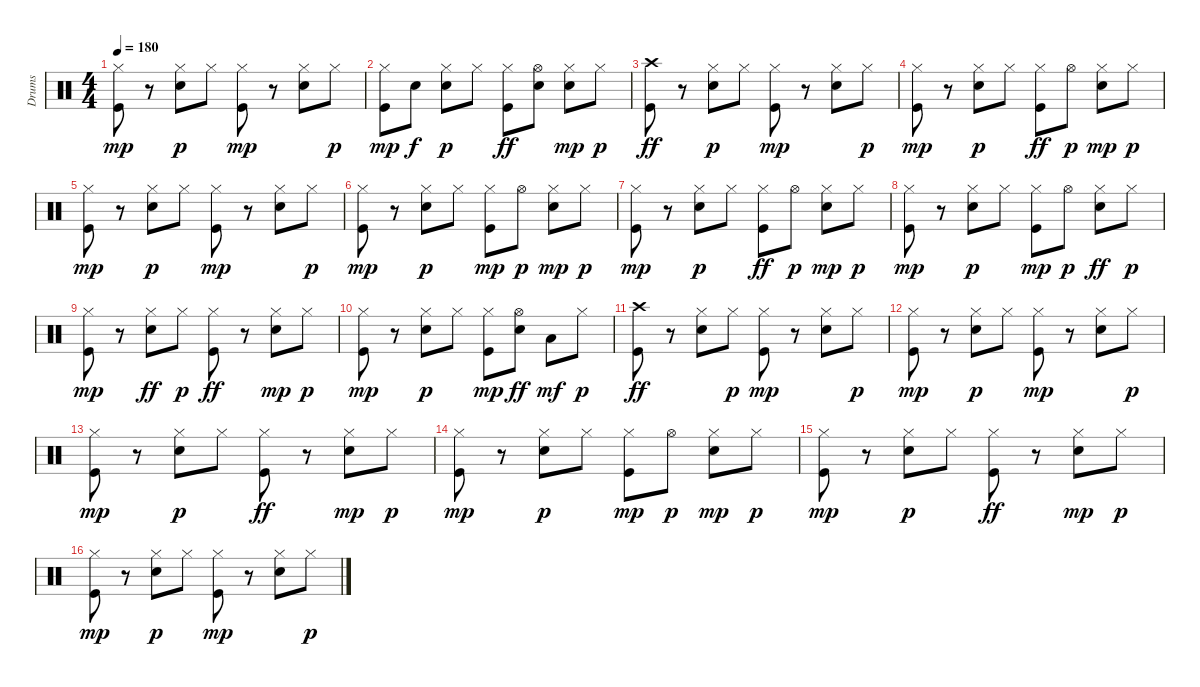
\track ("Drums" "Drums") {instrument percussion}
\staff {score}
\articulation defaults
\ts (4 4)
\tempo 180
\clef neutral
\ks c
("Kick (hit)" "Hi-Hat (closed)").8{dy mp} r.8 ("Snare (hit) 2" "Hi-Hat (closed)").8{dy p} "Hi-Hat (closed)".8 ("Kick (hit)" "Hi-Hat (closed)").8{dy mp} r.8 ("Snare (hit) 2" "Hi-Hat (closed)").8 "Hi-Hat (closed)".8{dy p} |
("Kick (hit)" "Hi-Hat (closed)").8{dy mp} "Snare (hit) 2".8{dy f} ("Snare (hit) 2" "Hi-Hat (closed)").8{dy p} "Hi-Hat (closed)".8 ("Hi-Hat (closed)" "Kick (hit)").8{dy ff} ("Hi-Hat (open)" "Snare (hit) 2").8 ("Snare (hit) 2" "Hi-Hat (closed)").8{dy mp} "Hi-Hat (closed)".8{dy p} |
("Crash high (hit)" "Kick (hit)").8{dy ff} r.8 ("Snare (hit) 2" "Hi-Hat (closed)").8{dy p} "Hi-Hat (closed)".8 ("Kick (hit)" "Hi-Hat (closed)").8{dy mp} r.8 ("Snare (hit) 2" "Hi-Hat (closed)").8 "Hi-Hat (closed)".8{dy p} |
("Kick (hit)" "Hi-Hat (closed)").8{dy mp} r.8 ("Snare (hit) 2" "Hi-Hat (closed)").8{dy p} "Hi-Hat (closed)".8 ("Hi-Hat (closed)" "Kick (hit)").8{dy ff} "Hi-Hat (open)".8{dy p} ("Snare (hit) 2" "Hi-Hat (closed)").8{dy mp} "Hi-Hat (closed)".8{dy p} |
("Kick (hit)" "Hi-Hat (closed)").8{dy mp} r.8 ("Snare (hit) 2" "Hi-Hat (closed)").8{dy p} "Hi-Hat (closed)".8 ("Kick (hit)" "Hi-Hat (closed)").8{dy mp} r.8 ("Snare (hit) 2" "Hi-Hat (closed)").8 "Hi-Hat (closed)".8{dy p} |
("Kick (hit)" "Hi-Hat (closed)").8{dy mp} r.8 ("Snare (hit) 2" "Hi-Hat (closed)").8{dy p} "Hi-Hat (closed)".8 ("Kick (hit)" "Hi-Hat (closed)").8{dy mp} "Hi-Hat (open)".8{dy p} ("Snare (hit) 2" "Hi-Hat (closed)").8{dy mp} "Hi-Hat (closed)".8{dy p} |
("Kick (hit)" "Hi-Hat (closed)").8{dy mp} r.8 ("Snare (hit) 2" "Hi-Hat (closed)").8{dy p} "Hi-Hat (closed)".8 ("Hi-Hat (closed)" "Kick (hit)").8{dy ff} "Hi-Hat (open)".8{dy p} ("Snare (hit) 2" "Hi-Hat (closed)").8{dy mp} "Hi-Hat (closed)".8{dy p} |
("Kick (hit)" "Hi-Hat (closed)").8{dy mp} r.8 ("Snare (hit) 2" "Hi-Hat (closed)").8{dy p} "Hi-Hat (closed)".8 ("Kick (hit)" "Hi-Hat (closed)").8{dy mp} "Hi-Hat (open)".8{dy p} ("Hi-Hat (closed)" "Snare (hit) 2").8{dy ff} "Hi-Hat (closed)".8{dy p} |
("Kick (hit)" "Hi-Hat (closed)").8{dy mp} r.8 ("Hi-Hat (closed)" "Snare (hit) 2").8{dy ff} "Hi-Hat (closed)".8{dy p} ("Hi-Hat (closed)" "Kick (hit)").8{dy ff} r.8 ("Snare (hit) 2" "Hi-Hat (closed)").8{dy mp} "Hi-Hat (closed)".8{dy p} |
("Kick (hit)" "Hi-Hat (closed)").8{dy mp} r.8 ("Snare (hit) 2" "Hi-Hat (closed)").8{dy p} "Hi-Hat (closed)".8 ("Kick (hit)" "Hi-Hat (closed)").8{dy mp} ("Hi-Hat (open)" "Snare (hit) 2").8{dy ff} "Low Tom (hit)".8{dy mf} "Hi-Hat (closed)".8{dy p} |
("Crash high (hit)" "Kick (hit)").8{dy ff} r.8 ("Hi-Hat (closed)" "Snare (hit) 2").8 "Hi-Hat (closed)".8{dy p} ("Kick (hit)" "Hi-Hat (closed)").8{dy mp} r.8 ("Snare (hit) 2" "Hi-Hat (closed)").8 "Hi-Hat (closed)".8{dy p} |
("Kick (hit)" "Hi-Hat (closed)").8{dy mp} r.8 ("Snare (hit) 2" "Hi-Hat (closed)").8{dy p} "Hi-Hat (closed)".8 ("Kick (hit)" "Hi-Hat (closed)").8{dy mp} r.8 ("Snare (hit) 2" "Hi-Hat (closed)").8 "Hi-Hat (closed)".8{dy p} |
("Kick (hit)" "Hi-Hat (closed)").8{dy mp} r.8 ("Snare (hit) 2" "Hi-Hat (closed)").8{dy p} "Hi-Hat (closed)".8 ("Hi-Hat (closed)" "Kick (hit)").8{dy ff} r.8 ("Snare (hit) 2" "Hi-Hat (closed)").8{dy mp} "Hi-Hat (closed)".8{dy p} |
("Kick (hit)" "Hi-Hat (closed)").8{dy mp} r.8 ("Snare (hit) 2" "Hi-Hat (closed)").8{dy p} "Hi-Hat (closed)".8 ("Kick (hit)" "Hi-Hat (closed)").8{dy mp} "Hi-Hat (open)".8{dy p} ("Snare (hit) 2" "Hi-Hat (closed)").8{dy mp} "Hi-Hat (closed)".8{dy p} |
("Kick (hit)" "Hi-Hat (closed)").8{dy mp} r.8 ("Snare (hit) 2" "Hi-Hat (closed)").8{dy p} "Hi-Hat (closed)".8 ("Hi-Hat (closed)" "Kick (hit)").8{dy ff} r.8 ("Snare (hit) 2" "Hi-Hat (closed)").8{dy mp} "Hi-Hat (closed)".8{dy p} |
("Kick (hit)" "Hi-Hat (closed)").8{dy mp} r.8 ("Snare (hit) 2" "Hi-Hat (closed)").8{dy p} "Hi-Hat (closed)".8 ("Kick (hit)" "Hi-Hat (closed)").8{dy mp} r.8 ("Snare (hit) 2" "Hi-Hat (closed)").8 "Hi-Hat (closed)".8{dy p}
